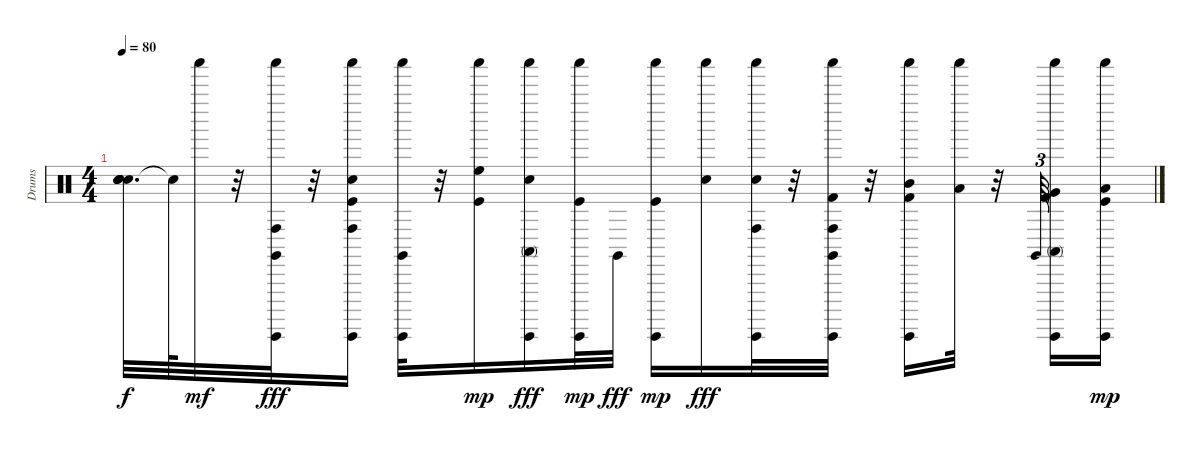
\track ("Drums" "Drums") {instrument percussion}
\staff {score}
\articulation defaults
\ts (4 4)
\tempo 80
\clef neutral
\ks c
("Snare (hit)"{t} "Snare (hit)"{t} "Snare (hit)"{t} "Snare (hit)"{t}).32{d dy f} "Snare (hit)"{t}.64 "Shaker (hit)".32{dy mf volume 2} r.32 ("Guiro (hit)" "Shaker (hit)" "Conga high (hit)" "Claves (hit)").32{dy fff volume 2} r.32 ("Guiro (hit)" "Shaker (hit)" "Kick (hit)" "Conga high (hit)" "Electric Snare (hit)").16{volume 2} ("Claves (hit)" "Guiro (hit)" "Shaker (hit)").32{volume 2} r.32 ("Shaker (hit)" "Kick (hit)" "High Floor Tom (hit)").16{dy mp volume 2} ("Guiro (hit)" "Shaker (hit)" "Conga high (mute)" "Electric Snare (hit)").16{dy fff volume 2} ("Guiro (hit)" "Shaker (hit)" "Kick (hit)").32{dy mp volume 2} "Claves (hit)".32{dy fff} ("Guiro (hit)" "Shaker (hit)" "Kick (hit)").16{dy mp volume 1} ("Shaker (hit)" "Electric Snare (hit)").16{dy fff volume 1} ("Guiro (hit)" "Shaker (hit)" "Conga high (hit)" "Electric Snare (hit)").32{volume 1} r.32 ("Claves (hit)" "Kick (hit) 2" "Guiro (hit)" "Shaker (hit)" "Conga high (hit)").32{volume 1} r.32 ("Mid Tom (hit)" "Kick (hit) 2" "Guiro (hit)" "Shaker (hit)").16{volume 1} ("Shaker (hit)" "Low Tom (hit)").32{volume 0} r.32 "Claves (hit)".64{tu (3 2) volume 0} ("Kick (hit) 2" "Guiro (hit)" "Shaker (hit)" "Conga high (mute)" "Very Low Tom (hit)").16 ("Low Floor Tom (hit)" "Guiro (hit)" "Shaker (hit)" "Kick (hit)").16{dy mp volume 0}
